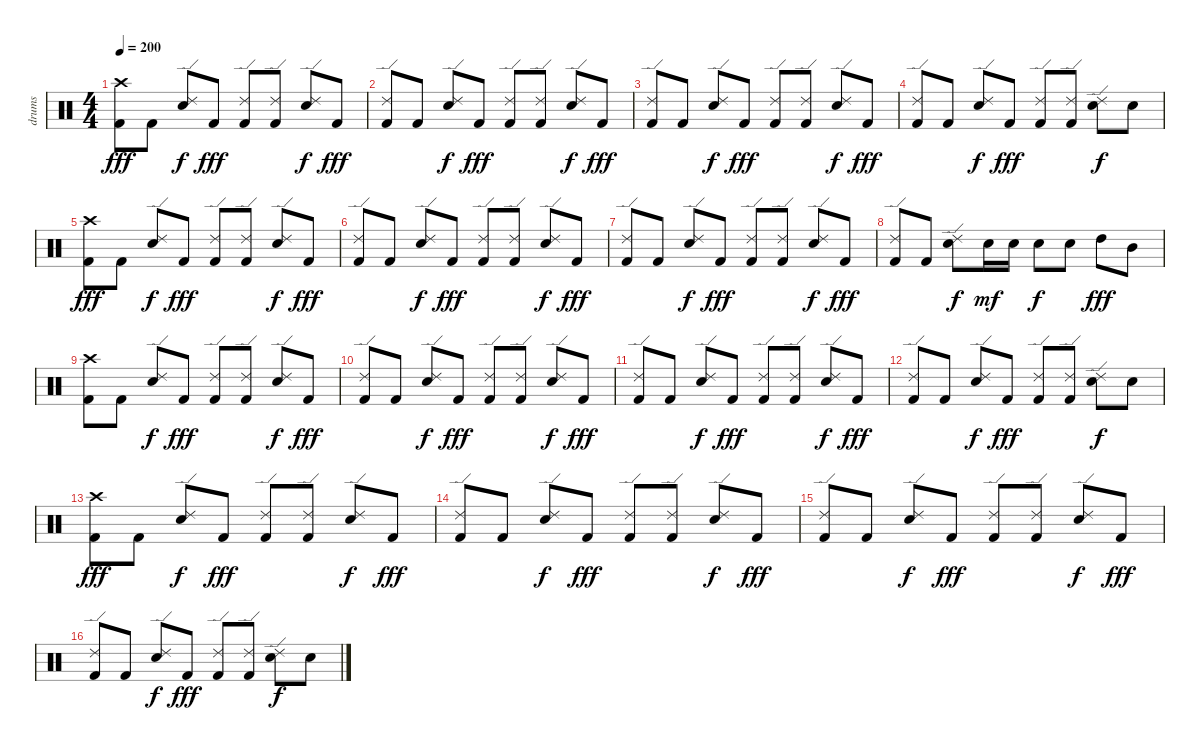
\track ("drums" "drums") {instrument percussion}
\staff {score}
\articulation defaults
\ts (4 4)
\tempo 200
\clef neutral
\ks c
("Crash high (hit)" "Kick (hit) 2").8{dy fff} "Kick (hit) 2".8 ("Ride (edge) 2" "Snare (hit) 2").8{dy f} "Kick (hit) 2".8{dy fff} ("Ride (edge) 2" "Kick (hit) 2").8 ("Ride (edge) 2" "Kick (hit) 2").8 ("Ride (edge) 2" "Snare (hit) 2").8{dy f} "Kick (hit) 2".8{dy fff} |
("Ride (edge) 2" "Kick (hit) 2").8 "Kick (hit) 2".8 ("Ride (edge) 2" "Snare (hit) 2").8{dy f} "Kick (hit) 2".8{dy fff} ("Ride (edge) 2" "Kick (hit) 2").8 ("Ride (edge) 2" "Kick (hit) 2").8 ("Ride (edge) 2" "Snare (hit) 2").8{dy f} "Kick (hit) 2".8{dy fff} |
("Ride (edge) 2" "Kick (hit) 2").8 "Kick (hit) 2".8 ("Ride (edge) 2" "Snare (hit) 2").8{dy f} "Kick (hit) 2".8{dy fff} ("Ride (edge) 2" "Kick (hit) 2").8 ("Ride (edge) 2" "Kick (hit) 2").8 ("Ride (edge) 2" "Snare (hit) 2").8{dy f} "Kick (hit) 2".8{dy fff} |
("Ride (edge) 2" "Kick (hit) 2").8 "Kick (hit) 2".8 ("Ride (edge) 2" "Snare (hit) 2").8{dy f} "Kick (hit) 2".8{dy fff} ("Ride (edge) 2" "Kick (hit) 2").8 ("Ride (edge) 2" "Kick (hit) 2").8 ("Ride (edge) 2" "Snare (hit) 2").8{dy f} "Snare (hit) 2".8 |
("Crash high (hit)" "Kick (hit) 2").8{dy fff} "Kick (hit) 2".8 ("Ride (edge) 2" "Snare (hit) 2").8{dy f} "Kick (hit) 2".8{dy fff} ("Ride (edge) 2" "Kick (hit) 2").8 ("Ride (edge) 2" "Kick (hit) 2").8 ("Ride (edge) 2" "Snare (hit) 2").8{dy f} "Kick (hit) 2".8{dy fff} |
("Ride (edge) 2" "Kick (hit) 2").8 "Kick (hit) 2".8 ("Ride (edge) 2" "Snare (hit) 2").8{dy f} "Kick (hit) 2".8{dy fff} ("Ride (edge) 2" "Kick (hit) 2").8 ("Ride (edge) 2" "Kick (hit) 2").8 ("Ride (edge) 2" "Snare (hit) 2").8{dy f} "Kick (hit) 2".8{dy fff} |
("Ride (edge) 2" "Kick (hit) 2").8 "Kick (hit) 2".8 ("Ride (edge) 2" "Snare (hit) 2").8{dy f} "Kick (hit) 2".8{dy fff} ("Ride (edge) 2" "Kick (hit) 2").8 ("Ride (edge) 2" "Kick (hit) 2").8 ("Ride (edge) 2" "Snare (hit) 2").8{dy f} "Kick (hit) 2".8{dy fff} |
("Ride (edge) 2" "Kick (hit) 2").8 "Kick (hit) 2".8 ("Ride (edge) 2" "Snare (hit) 2").8{dy f} "Snare (hit) 2".16{dy mf} "Snare (hit) 2".16 "Snare (hit) 2".8{dy f} "Snare (hit) 2".8 "High Tom (hit)".8{dy fff} "Mid Tom (hit)".8 |
("Crash high (hit)" "Kick (hit) 2").8 "Kick (hit) 2".8 ("Ride (edge) 2" "Snare (hit) 2").8{dy f} "Kick (hit) 2".8{dy fff} ("Ride (edge) 2" "Kick (hit) 2").8 ("Ride (edge) 2" "Kick (hit) 2").8 ("Ride (edge) 2" "Snare (hit) 2").8{dy f} "Kick (hit) 2".8{dy fff} |
("Ride (edge) 2" "Kick (hit) 2").8 "Kick (hit) 2".8 ("Ride (edge) 2" "Snare (hit) 2").8{dy f} "Kick (hit) 2".8{dy fff} ("Ride (edge) 2" "Kick (hit) 2").8 ("Ride (edge) 2" "Kick (hit) 2").8 ("Ride (edge) 2" "Snare (hit) 2").8{dy f} "Kick (hit) 2".8{dy fff} |
("Ride (edge) 2" "Kick (hit) 2").8 "Kick (hit) 2".8 ("Ride (edge) 2" "Snare (hit) 2").8{dy f} "Kick (hit) 2".8{dy fff} ("Ride (edge) 2" "Kick (hit) 2").8 ("Ride (edge) 2" "Kick (hit) 2").8 ("Ride (edge) 2" "Snare (hit) 2").8{dy f} "Kick (hit) 2".8{dy fff} |
("Ride (edge) 2" "Kick (hit) 2").8 "Kick (hit) 2".8 ("Ride (edge) 2" "Snare (hit) 2").8{dy f} "Kick (hit) 2".8{dy fff} ("Ride (edge) 2" "Kick (hit) 2").8 ("Ride (edge) 2" "Kick (hit) 2").8 ("Ride (edge) 2" "Snare (hit) 2").8{dy f} "Snare (hit) 2".8 |
("Crash high (hit)" "Kick (hit) 2").8{dy fff} "Kick (hit) 2".8 ("Ride (edge) 2" "Snare (hit) 2").8{dy f} "Kick (hit) 2".8{dy fff} ("Ride (edge) 2" "Kick (hit) 2").8 ("Ride (edge) 2" "Kick (hit) 2").8 ("Ride (edge) 2" "Snare (hit) 2").8{dy f} "Kick (hit) 2".8{dy fff} |
("Ride (edge) 2" "Kick (hit) 2").8 "Kick (hit) 2".8 ("Ride (edge) 2" "Snare (hit) 2").8{dy f} "Kick (hit) 2".8{dy fff} ("Ride (edge) 2" "Kick (hit) 2").8 ("Ride (edge) 2" "Kick (hit) 2").8 ("Ride (edge) 2" "Snare (hit) 2").8{dy f} "Kick (hit) 2".8{dy fff} |
("Ride (edge) 2" "Kick (hit) 2").8 "Kick (hit) 2".8 ("Ride (edge) 2" "Snare (hit) 2").8{dy f} "Kick (hit) 2".8{dy fff} ("Ride (edge) 2" "Kick (hit) 2").8 ("Ride (edge) 2" "Kick (hit) 2").8 ("Ride (edge) 2" "Snare (hit) 2").8{dy f} "Kick (hit) 2".8{dy fff} |
("Ride (edge) 2" "Kick (hit) 2").8 "Kick (hit) 2".8 ("Ride (edge) 2" "Snare (hit) 2").8{dy f} "Kick (hit) 2".8{dy fff} ("Ride (edge) 2" "Kick (hit) 2").8 ("Ride (edge) 2" "Kick (hit) 2").8 ("Ride (edge) 2" "Snare (hit) 2").8{dy f} "Snare (hit) 2".8
